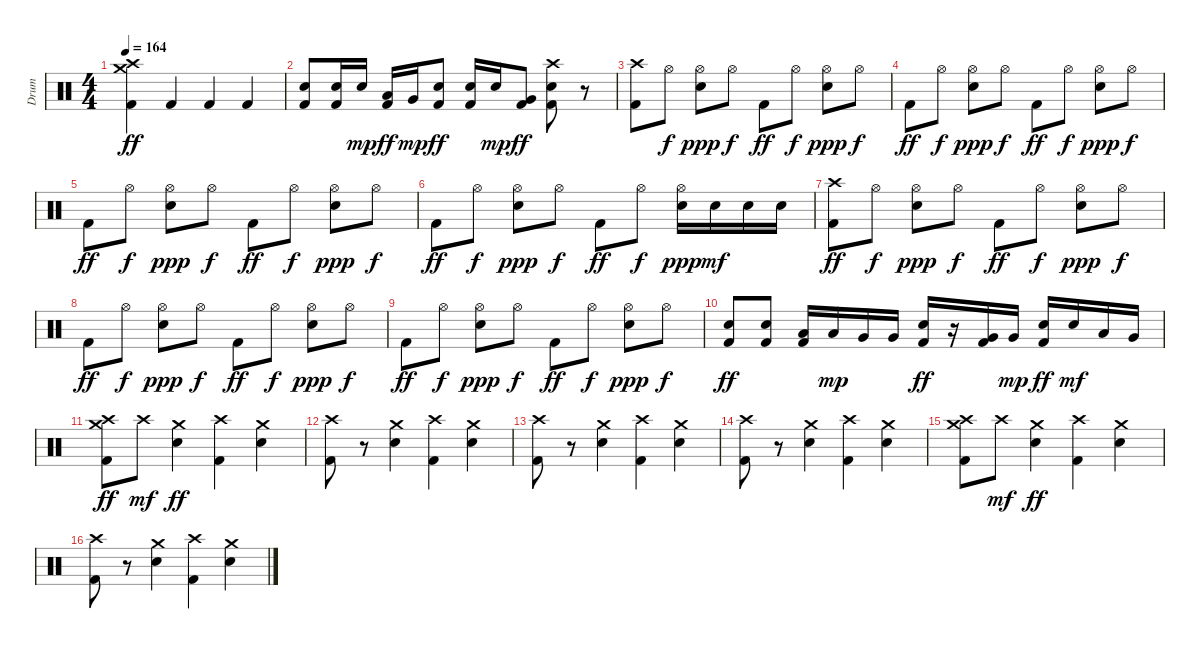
\track ("Drum" "Drum") {instrument percussion}
\staff {score}
\articulation defaults
\ts (4 4)
\tempo 164
\clef neutral
\ks c
("Crash high (hit)" "Crash medium (hit)" "Kick (hit) 2").4{dy ff} "Kick (hit) 2".4 "Kick (hit) 2".4 "Kick (hit) 2".4 |
("Electric Snare (hit)" "Kick (hit) 2").8 ("Electric Snare (hit)" "Kick (hit) 2").16 "Electric Snare (hit)".16{dy mp} ("Low Tom (hit)" "Kick (hit) 2").16{dy ff} "Very Low Tom (hit)".16{dy mp} ("Electric Snare (hit)" "Kick (hit) 2").8{dy ff} ("Electric Snare (hit)" "Kick (hit) 2").16 "Electric Snare (hit)".16{dy mp} ("Very Low Tom (hit)" "Kick (hit) 2").8{dy ff} ("Crash high (hit)" "Electric Snare (hit)" "Kick (hit) 2").8 r.8 |
("Crash high (hit)" "Kick (hit) 2").8 "Hi-Hat (open)".8{dy f} ("Electric Snare (hit)" "Hi-Hat (open)").8{dy ppp} "Hi-Hat (open)".8{dy f} "Kick (hit) 2".8{dy ff} "Hi-Hat (open)".8{dy f} ("Electric Snare (hit)" "Hi-Hat (open)").8{dy ppp} "Hi-Hat (open)".8{dy f} |
"Kick (hit) 2".8{dy ff} "Hi-Hat (open)".8{dy f} ("Electric Snare (hit)" "Hi-Hat (open)").8{dy ppp} "Hi-Hat (open)".8{dy f} "Kick (hit) 2".8{dy ff} "Hi-Hat (open)".8{dy f} ("Electric Snare (hit)" "Hi-Hat (open)").8{dy ppp} "Hi-Hat (open)".8{dy f} |
"Kick (hit) 2".8{dy ff} "Hi-Hat (open)".8{dy f} ("Electric Snare (hit)" "Hi-Hat (open)").8{dy ppp} "Hi-Hat (open)".8{dy f} "Kick (hit) 2".8{dy ff} "Hi-Hat (open)".8{dy f} ("Electric Snare (hit)" "Hi-Hat (open)").8{dy ppp} "Hi-Hat (open)".8{dy f} |
"Kick (hit) 2".8{dy ff} "Hi-Hat (open)".8{dy f} ("Electric Snare (hit)" "Hi-Hat (open)").8{dy ppp} "Hi-Hat (open)".8{dy f} "Kick (hit) 2".8{dy ff} "Hi-Hat (open)".8{dy f} ("Electric Snare (hit)" "Hi-Hat (open)").16{dy ppp} "Electric Snare (hit)".16{dy mf} "Electric Snare (hit)".16 "Electric Snare (hit)".16 |
("Crash high (hit)" "Kick (hit) 2").8{dy ff} "Hi-Hat (open)".8{dy f} ("Electric Snare (hit)" "Hi-Hat (open)").8{dy ppp} "Hi-Hat (open)".8{dy f} "Kick (hit) 2".8{dy ff} "Hi-Hat (open)".8{dy f} ("Electric Snare (hit)" "Hi-Hat (open)").8{dy ppp} "Hi-Hat (open)".8{dy f} |
"Kick (hit) 2".8{dy ff} "Hi-Hat (open)".8{dy f} ("Electric Snare (hit)" "Hi-Hat (open)").8{dy ppp} "Hi-Hat (open)".8{dy f} "Kick (hit) 2".8{dy ff} "Hi-Hat (open)".8{dy f} ("Electric Snare (hit)" "Hi-Hat (open)").8{dy ppp} "Hi-Hat (open)".8{dy f} |
"Kick (hit) 2".8{dy ff} "Hi-Hat (open)".8{dy f} ("Electric Snare (hit)" "Hi-Hat (open)").8{dy ppp} "Hi-Hat (open)".8{dy f} "Kick (hit) 2".8{dy ff} "Hi-Hat (open)".8{dy f} ("Electric Snare (hit)" "Hi-Hat (open)").8{dy ppp} "Hi-Hat (open)".8{dy f} |
("Electric Snare (hit)" "Kick (hit) 2").8{dy ff} ("Electric Snare (hit)" "Kick (hit) 2").8 ("Low Tom (hit)" "Kick (hit) 2").16 "Low Tom (hit)".16{dy mp} "Very Low Tom (hit)".16 "Very Low Tom (hit)".16 ("Electric Snare (hit)" "Kick (hit) 2").16{dy ff} r.16 ("Very Low Tom (hit)" "Kick (hit) 2").16 "Very Low Tom (hit)".16{dy mp} ("Electric Snare (hit)" "Kick (hit) 2").16{dy ff} "Electric Snare (hit)".16{dy mf} "Low Tom (hit)".16 "Very Low Tom (hit)".16 |
("Crash high (hit)" "Crash medium (hit)" "Kick (hit) 2").8{dy ff} "Crash high (hit)".8{dy mf} ("Crash medium (hit)" "Electric Snare (hit)").4{dy ff} ("Crash high (hit)" "Kick (hit) 2").4 ("Crash medium (hit)" "Electric Snare (hit)").4 |
("Crash high (hit)" "Kick (hit) 2").8 r.8 ("Crash medium (hit)" "Electric Snare (hit)").4 ("Crash high (hit)" "Kick (hit) 2").4 ("Crash medium (hit)" "Electric Snare (hit)").4 |
("Crash high (hit)" "Kick (hit) 2").8 r.8 ("Crash medium (hit)" "Electric Snare (hit)").4 ("Crash high (hit)" "Kick (hit) 2").4 ("Crash medium (hit)" "Electric Snare (hit)").4 |
("Crash high (hit)" "Kick (hit) 2").8 r.8 ("Crash medium (hit)" "Electric Snare (hit)").4 ("Crash high (hit)" "Kick (hit) 2").4 ("Crash medium (hit)" "Electric Snare (hit)").4 |
("Crash high (hit)" "Crash medium (hit)" "Kick (hit) 2").8 "Crash high (hit)".8{dy mf} ("Crash medium (hit)" "Electric Snare (hit)").4{dy ff} ("Crash high (hit)" "Kick (hit) 2").4 ("Crash medium (hit)" "Electric Snare (hit)").4 |
("Crash high (hit)" "Kick (hit) 2").8 r.8 ("Crash medium (hit)" "Electric Snare (hit)").4 ("Crash high (hit)" "Kick (hit) 2").4 ("Crash medium (hit)" "Electric Snare (hit)").4
